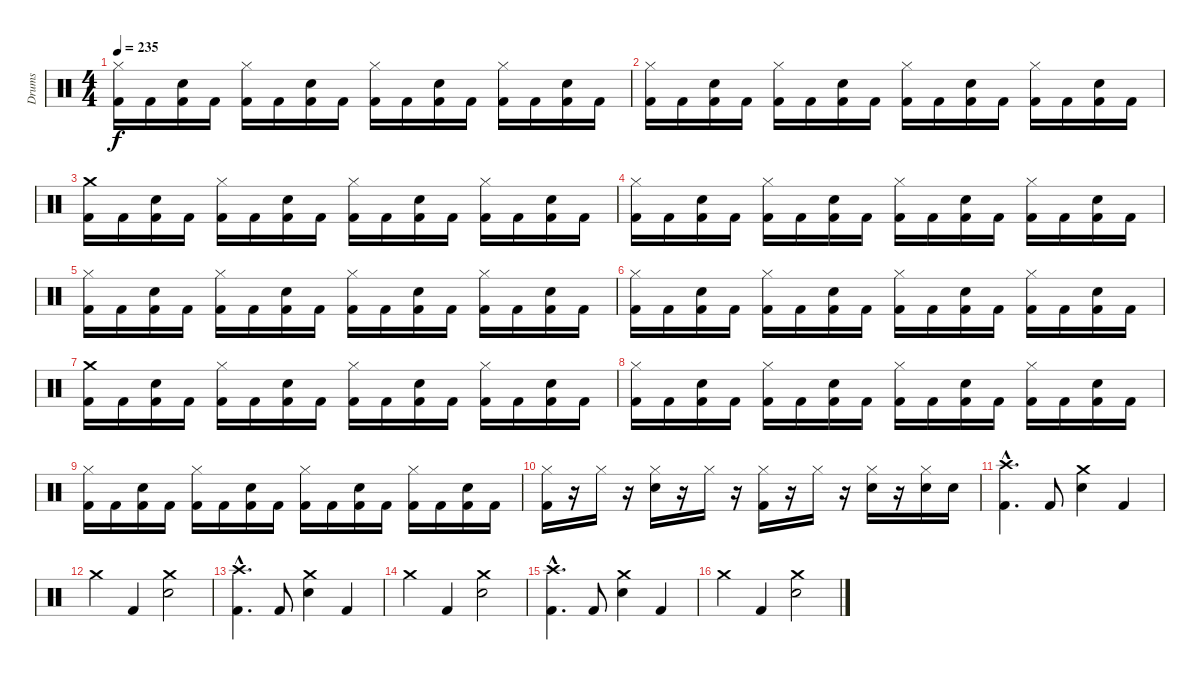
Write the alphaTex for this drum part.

\track ("Drums" "Drums") {instrument percussion}
\staff {score}
\articulation defaults
\ts (4 4)
\tempo 235
\clef neutral
\ks c
("Hi-Hat (closed)" "Kick (hit) 2").16{dy f} "Kick (hit) 2".16 ("Electric Snare (hit)" "Kick (hit) 2").16 "Kick (hit) 2".16 ("Hi-Hat (closed)" "Kick (hit) 2").16 "Kick (hit) 2".16 ("Electric Snare (hit)" "Kick (hit) 2").16 "Kick (hit) 2".16 ("Hi-Hat (closed)" "Kick (hit) 2").16 "Kick (hit) 2".16 ("Electric Snare (hit)" "Kick (hit) 2").16 "Kick (hit) 2".16 ("Hi-Hat (closed)" "Kick (hit) 2").16 "Kick (hit) 2".16 ("Electric Snare (hit)" "Kick (hit) 2").16 "Kick (hit) 2".16 |
("Hi-Hat (closed)" "Kick (hit) 2").16 "Kick (hit) 2".16 ("Electric Snare (hit)" "Kick (hit) 2").16 "Kick (hit) 2".16 ("Hi-Hat (closed)" "Kick (hit) 2").16 "Kick (hit) 2".16 ("Electric Snare (hit)" "Kick (hit) 2").16 "Kick (hit) 2".16 ("Hi-Hat (closed)" "Kick (hit) 2").16 "Kick (hit) 2".16 ("Electric Snare (hit)" "Kick (hit) 2").16 "Kick (hit) 2".16 ("Hi-Hat (closed)" "Kick (hit) 2").16 "Kick (hit) 2".16 ("Electric Snare (hit)" "Kick (hit) 2").16 "Kick (hit) 2".16 |
("Crash medium (hit)" "Kick (hit) 2").16 "Kick (hit) 2".16 ("Electric Snare (hit)" "Kick (hit) 2").16 "Kick (hit) 2".16 ("Hi-Hat (closed)" "Kick (hit) 2").16 "Kick (hit) 2".16 ("Electric Snare (hit)" "Kick (hit) 2").16 "Kick (hit) 2".16 ("Hi-Hat (closed)" "Kick (hit) 2").16 "Kick (hit) 2".16 ("Electric Snare (hit)" "Kick (hit) 2").16 "Kick (hit) 2".16 ("Hi-Hat (closed)" "Kick (hit) 2").16 "Kick (hit) 2".16 ("Electric Snare (hit)" "Kick (hit) 2").16 "Kick (hit) 2".16 |
("Hi-Hat (closed)" "Kick (hit) 2").16 "Kick (hit) 2".16 ("Electric Snare (hit)" "Kick (hit) 2").16 "Kick (hit) 2".16 ("Hi-Hat (closed)" "Kick (hit) 2").16 "Kick (hit) 2".16 ("Electric Snare (hit)" "Kick (hit) 2").16 "Kick (hit) 2".16 ("Hi-Hat (closed)" "Kick (hit) 2").16 "Kick (hit) 2".16 ("Electric Snare (hit)" "Kick (hit) 2").16 "Kick (hit) 2".16 ("Hi-Hat (closed)" "Kick (hit) 2").16 "Kick (hit) 2".16 ("Electric Snare (hit)" "Kick (hit) 2").16 "Kick (hit) 2".16 |
("Hi-Hat (closed)" "Kick (hit) 2").16 "Kick (hit) 2".16 ("Electric Snare (hit)" "Kick (hit) 2").16 "Kick (hit) 2".16 ("Hi-Hat (closed)" "Kick (hit) 2").16 "Kick (hit) 2".16 ("Electric Snare (hit)" "Kick (hit) 2").16 "Kick (hit) 2".16 ("Hi-Hat (closed)" "Kick (hit) 2").16 "Kick (hit) 2".16 ("Electric Snare (hit)" "Kick (hit) 2").16 "Kick (hit) 2".16 ("Hi-Hat (closed)" "Kick (hit) 2").16 "Kick (hit) 2".16 ("Electric Snare (hit)" "Kick (hit) 2").16 "Kick (hit) 2".16 |
("Hi-Hat (closed)" "Kick (hit) 2").16 "Kick (hit) 2".16 ("Electric Snare (hit)" "Kick (hit) 2").16 "Kick (hit) 2".16 ("Hi-Hat (closed)" "Kick (hit) 2").16 "Kick (hit) 2".16 ("Electric Snare (hit)" "Kick (hit) 2").16 "Kick (hit) 2".16 ("Hi-Hat (closed)" "Kick (hit) 2").16 "Kick (hit) 2".16 ("Electric Snare (hit)" "Kick (hit) 2").16 "Kick (hit) 2".16 ("Hi-Hat (closed)" "Kick (hit) 2").16 "Kick (hit) 2".16 ("Electric Snare (hit)" "Kick (hit) 2").16 "Kick (hit) 2".16 |
("Crash medium (hit)" "Kick (hit) 2").16 "Kick (hit) 2".16 ("Electric Snare (hit)" "Kick (hit) 2").16 "Kick (hit) 2".16 ("Hi-Hat (closed)" "Kick (hit) 2").16 "Kick (hit) 2".16 ("Electric Snare (hit)" "Kick (hit) 2").16 "Kick (hit) 2".16 ("Hi-Hat (closed)" "Kick (hit) 2").16 "Kick (hit) 2".16 ("Electric Snare (hit)" "Kick (hit) 2").16 "Kick (hit) 2".16 ("Hi-Hat (closed)" "Kick (hit) 2").16 "Kick (hit) 2".16 ("Electric Snare (hit)" "Kick (hit) 2").16 "Kick (hit) 2".16 |
("Hi-Hat (closed)" "Kick (hit) 2").16 "Kick (hit) 2".16 ("Electric Snare (hit)" "Kick (hit) 2").16 "Kick (hit) 2".16 ("Hi-Hat (closed)" "Kick (hit) 2").16 "Kick (hit) 2".16 ("Electric Snare (hit)" "Kick (hit) 2").16 "Kick (hit) 2".16 ("Hi-Hat (closed)" "Kick (hit) 2").16 "Kick (hit) 2".16 ("Electric Snare (hit)" "Kick (hit) 2").16 "Kick (hit) 2".16 ("Hi-Hat (closed)" "Kick (hit) 2").16 "Kick (hit) 2".16 ("Electric Snare (hit)" "Kick (hit) 2").16 "Kick (hit) 2".16 |
("Hi-Hat (closed)" "Kick (hit) 2").16 "Kick (hit) 2".16 ("Electric Snare (hit)" "Kick (hit) 2").16 "Kick (hit) 2".16 ("Hi-Hat (closed)" "Kick (hit) 2").16 "Kick (hit) 2".16 ("Electric Snare (hit)" "Kick (hit) 2").16 "Kick (hit) 2".16 ("Hi-Hat (closed)" "Kick (hit) 2").16 "Kick (hit) 2".16 ("Electric Snare (hit)" "Kick (hit) 2").16 "Kick (hit) 2".16 ("Hi-Hat (closed)" "Kick (hit) 2").16 "Kick (hit) 2".16 ("Electric Snare (hit)" "Kick (hit) 2").16 "Kick (hit) 2".16 |
("Hi-Hat (closed)" "Kick (hit) 2").16 r.16 "Hi-Hat (closed)".16 r.16 ("Hi-Hat (closed)" "Electric Snare (hit)").16 r.16 "Hi-Hat (closed)".16 r.16 ("Hi-Hat (closed)" "Kick (hit) 2").16 r.16 "Hi-Hat (closed)".16 r.16 ("Hi-Hat (closed)" "Electric Snare (hit)").16 r.16 ("Hi-Hat (closed)" "Electric Snare (hit)").16 "Electric Snare (hit)".16 |
("Crash high (hit)"{hac} "Kick (hit) 2"{hac}).4{d} "Kick (hit) 2".8 ("Crash medium (hit)" "Electric Snare (hit)").4 "Kick (hit) 2".4 |
"Crash medium (hit)".4 "Kick (hit) 2".4 ("Crash medium (hit)" "Electric Snare (hit)").2 |
("Crash high (hit)"{hac} "Kick (hit) 2"{hac}).4{d} "Kick (hit) 2".8 ("Crash medium (hit)" "Electric Snare (hit)").4 "Kick (hit) 2".4 |
"Crash medium (hit)".4 "Kick (hit) 2".4 ("Crash medium (hit)" "Electric Snare (hit)").2 |
("Crash high (hit)"{hac} "Kick (hit) 2"{hac}).4{d} "Kick (hit) 2".8 ("Crash medium (hit)" "Electric Snare (hit)").4 "Kick (hit) 2".4 |
"Crash medium (hit)".4 "Kick (hit) 2".4 ("Crash medium (hit)" "Electric Snare (hit)").2
